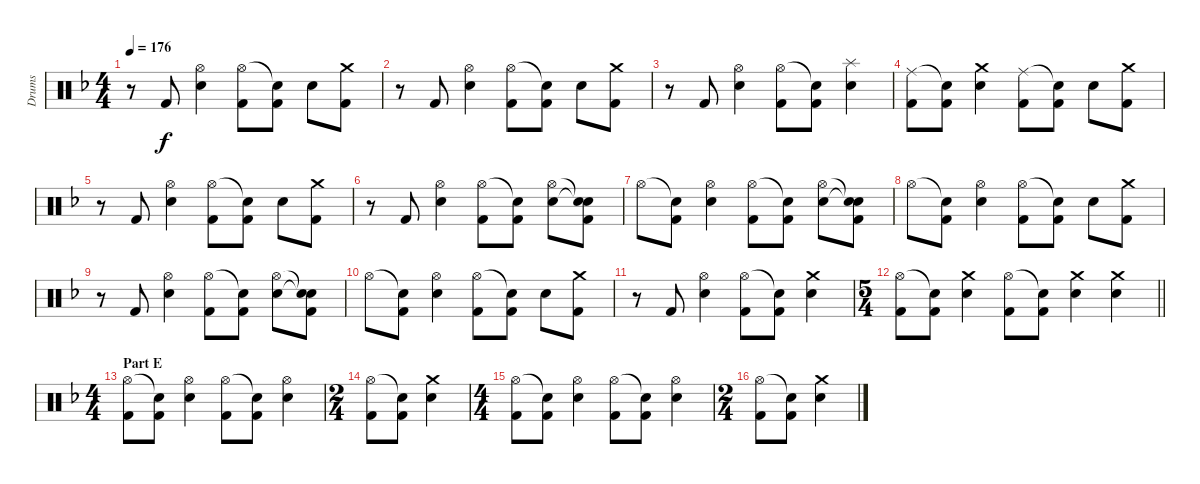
\track ("Drums" "Drums") {instrument percussion}
\staff {score}
\articulation defaults
\ts (4 4)
\tempo 176
\clef neutral
\ks f
r.8{dy f} "Kick (hit) 2".8 ("Hi-Hat (open)" "Electric Snare (hit)").4 ("Hi-Hat (open)" "Kick (hit) 2").8 ("Snare (hit)"{t} "Kick (hit) 2").8 "Electric Snare (hit)".8 ("Crash medium (hit)" "Kick (hit) 2").8 |
r.8 "Kick (hit) 2".8 ("Hi-Hat (open)" "Electric Snare (hit)").4 ("Hi-Hat (open)" "Kick (hit) 2").8 ("Snare (hit)"{t} "Kick (hit) 2").8 "Electric Snare (hit)".8 ("Crash medium (hit)" "Kick (hit) 2").8 |
r.8 "Kick (hit) 2".8 ("Hi-Hat (open)" "Electric Snare (hit)").4 ("Hi-Hat (open)" "Kick (hit) 2").8 ("Snare (hit)"{t} "Kick (hit) 2").8 ("Splash (hit)" "Electric Snare (hit)").4 |
("Ride (middle)" "Kick (hit) 2").8 ("Snare (hit)"{t} "Kick (hit) 2").8 ("Crash medium (hit)" "Electric Snare (hit)").4 ("Ride (middle)" "Kick (hit) 2").8 ("Snare (hit)"{t} "Kick (hit) 2").8 "Electric Snare (hit)".8 ("Crash medium (hit)" "Kick (hit) 2").8 |
r.8 "Kick (hit) 2".8 ("Hi-Hat (open)" "Electric Snare (hit)").4 ("Hi-Hat (open)" "Kick (hit) 2").8 ("Snare (hit)"{t} "Kick (hit) 2").8 "Electric Snare (hit)".8 ("Crash medium (hit)" "Kick (hit) 2").8 |
r.8 "Kick (hit) 2".8 ("Hi-Hat (open)" "Electric Snare (hit)").4 ("Hi-Hat (open)" "Kick (hit) 2").8 ("Snare (hit)"{t} "Kick (hit) 2").8 ("Hi-Hat (open)" "Electric Snare (hit)").8 ("Snare (hit)"{t} "Snare (hit)"{t} "Kick (hit) 2").8 |
"Hi-Hat (open)".8 ("Snare (hit)"{t} "Kick (hit) 2").8 ("Hi-Hat (open)" "Electric Snare (hit)").4 ("Hi-Hat (open)" "Kick (hit) 2").8 ("Snare (hit)"{t} "Kick (hit) 2").8 ("Hi-Hat (open)" "Electric Snare (hit)").8 ("Snare (hit)"{t} "Snare (hit)"{t} "Kick (hit) 2").8 |
"Hi-Hat (open)".8 ("Snare (hit)"{t} "Kick (hit) 2").8 ("Hi-Hat (open)" "Electric Snare (hit)").4 ("Hi-Hat (open)" "Kick (hit) 2").8 ("Snare (hit)"{t} "Kick (hit) 2").8 "Electric Snare (hit)".8 ("Crash medium (hit)" "Kick (hit) 2").8 |
r.8 "Kick (hit) 2".8 ("Hi-Hat (open)" "Electric Snare (hit)").4 ("Hi-Hat (open)" "Kick (hit) 2").8 ("Snare (hit)"{t} "Kick (hit) 2").8 ("Hi-Hat (open)" "Electric Snare (hit)").8 ("Snare (hit)"{t} "Snare (hit)"{t} "Kick (hit) 2").8 |
"Hi-Hat (open)".8 ("Snare (hit)"{t} "Kick (hit) 2").8 ("Hi-Hat (open)" "Electric Snare (hit)").4 ("Hi-Hat (open)" "Kick (hit) 2").8 ("Snare (hit)"{t} "Kick (hit) 2").8 "Electric Snare (hit)".8 ("Crash medium (hit)" "Kick (hit) 2").8 |
r.8 "Kick (hit) 2".8 ("Hi-Hat (open)" "Electric Snare (hit)").4 ("Hi-Hat (open)" "Kick (hit) 2").8 ("Snare (hit)"{t} "Kick (hit) 2").8 ("Crash medium (hit)" "Electric Snare (hit)").4 |
\ts (5 4)
\barLineRight lightlight
("Hi-Hat (open)" "Kick (hit) 2").8 ("Snare (hit)"{t} "Kick (hit) 2").8 ("Crash medium (hit)" "Electric Snare (hit)").4 ("Hi-Hat (open)" "Kick (hit) 2").8 ("Snare (hit)"{t} "Kick (hit) 2").8 ("Crash medium (hit)" "Electric Snare (hit)").4 ("Crash medium (hit)" "Electric Snare (hit)").4 |
\ts (4 4)
\section ("" "Part E")
("Hi-Hat (open)" "Kick (hit) 2").8 ("Snare (hit)"{t} "Kick (hit) 2").8 ("Hi-Hat (open)" "Electric Snare (hit)").4 ("Hi-Hat (open)" "Kick (hit) 2").8 ("Snare (hit)"{t} "Kick (hit) 2").8 ("Hi-Hat (open)" "Electric Snare (hit)").4 |
\ts (2 4)
("Hi-Hat (open)" "Kick (hit) 2").8 ("Snare (hit)"{t} "Kick (hit) 2").8 ("Crash medium (hit)" "Electric Snare (hit)").4 |
\ts (4 4)
("Hi-Hat (open)" "Kick (hit) 2").8 ("Snare (hit)"{t} "Kick (hit) 2").8 ("Hi-Hat (open)" "Electric Snare (hit)").4 ("Hi-Hat (open)" "Kick (hit) 2").8 ("Snare (hit)"{t} "Kick (hit) 2").8 ("Hi-Hat (open)" "Electric Snare (hit)").4 |
\ts (2 4)
("Hi-Hat (open)" "Kick (hit) 2").8 ("Snare (hit)"{t} "Kick (hit) 2").8 ("Crash medium (hit)" "Electric Snare (hit)").4
